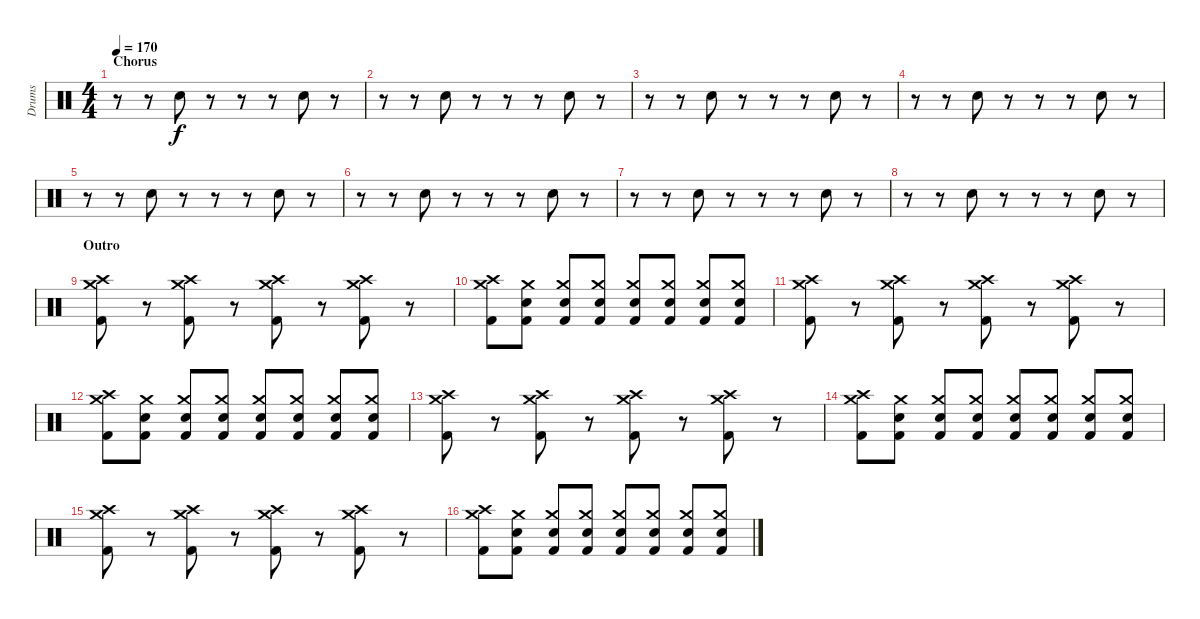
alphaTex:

\track ("Drums" "Drums") {instrument percussion}
\staff {score}
\articulation defaults
\ts (4 4)
\section ("" "Chorus")
\tempo 170
\clef neutral
\ks c
r.8{dy f} r.8 "Electric Snare (hit)".8 r.8 r.8 r.8 "Electric Snare (hit)".8 r.8 |
r.8 r.8 "Electric Snare (hit)".8 r.8 r.8 r.8 "Electric Snare (hit)".8 r.8 |
r.8 r.8 "Electric Snare (hit)".8 r.8 r.8 r.8 "Electric Snare (hit)".8 r.8 |
r.8 r.8 "Electric Snare (hit)".8 r.8 r.8 r.8 "Electric Snare (hit)".8 r.8 |
r.8 r.8 "Electric Snare (hit)".8 r.8 r.8 r.8 "Electric Snare (hit)".8 r.8 |
r.8 r.8 "Electric Snare (hit)".8 r.8 r.8 r.8 "Electric Snare (hit)".8 r.8 |
r.8 r.8 "Electric Snare (hit)".8 r.8 r.8 r.8 "Electric Snare (hit)".8 r.8 |
r.8 r.8 "Electric Snare (hit)".8 r.8 r.8 r.8 "Electric Snare (hit)".8 r.8 |
\section ("" "Outro")
("Crash high (hit)" "Crash medium (hit)" "Kick (hit) 2").8 r.8 ("Crash high (hit)" "Crash medium (hit)" "Kick (hit) 2").8 r.8 ("Crash high (hit)" "Crash medium (hit)" "Kick (hit) 2").8 r.8 ("Crash high (hit)" "Crash medium (hit)" "Kick (hit) 2").8 r.8 |
("Crash high (hit)" "Crash medium (hit)" "Kick (hit) 2").8 ("Crash medium (hit)" "Electric Snare (hit)" "Kick (hit) 2").8 ("Crash medium (hit)" "Electric Snare (hit)" "Kick (hit) 2").8 ("Crash medium (hit)" "Electric Snare (hit)" "Kick (hit) 2").8 ("Crash medium (hit)" "Electric Snare (hit)" "Kick (hit) 2").8 ("Crash medium (hit)" "Electric Snare (hit)" "Kick (hit) 2").8 ("Crash medium (hit)" "Electric Snare (hit)" "Kick (hit) 2").8 ("Crash medium (hit)" "Electric Snare (hit)" "Kick (hit) 2").8 |
("Crash high (hit)" "Crash medium (hit)" "Kick (hit) 2").8 r.8 ("Crash high (hit)" "Crash medium (hit)" "Kick (hit) 2").8 r.8 ("Crash high (hit)" "Crash medium (hit)" "Kick (hit) 2").8 r.8 ("Crash high (hit)" "Crash medium (hit)" "Kick (hit) 2").8 r.8 |
("Crash high (hit)" "Crash medium (hit)" "Kick (hit) 2").8 ("Crash medium (hit)" "Electric Snare (hit)" "Kick (hit) 2").8 ("Crash medium (hit)" "Electric Snare (hit)" "Kick (hit) 2").8 ("Crash medium (hit)" "Electric Snare (hit)" "Kick (hit) 2").8 ("Crash medium (hit)" "Electric Snare (hit)" "Kick (hit) 2").8 ("Crash medium (hit)" "Electric Snare (hit)" "Kick (hit) 2").8 ("Crash medium (hit)" "Electric Snare (hit)" "Kick (hit) 2").8 ("Crash medium (hit)" "Electric Snare (hit)" "Kick (hit) 2").8 |
("Crash high (hit)" "Crash medium (hit)" "Kick (hit) 2").8 r.8 ("Crash high (hit)" "Crash medium (hit)" "Kick (hit) 2").8 r.8 ("Crash high (hit)" "Crash medium (hit)" "Kick (hit) 2").8 r.8 ("Crash high (hit)" "Crash medium (hit)" "Kick (hit) 2").8 r.8 |
("Crash high (hit)" "Crash medium (hit)" "Kick (hit) 2").8 ("Crash medium (hit)" "Electric Snare (hit)" "Kick (hit) 2").8 ("Crash medium (hit)" "Electric Snare (hit)" "Kick (hit) 2").8 ("Crash medium (hit)" "Electric Snare (hit)" "Kick (hit) 2").8 ("Crash medium (hit)" "Electric Snare (hit)" "Kick (hit) 2").8 ("Crash medium (hit)" "Electric Snare (hit)" "Kick (hit) 2").8 ("Crash medium (hit)" "Electric Snare (hit)" "Kick (hit) 2").8 ("Crash medium (hit)" "Electric Snare (hit)" "Kick (hit) 2").8 |
("Crash high (hit)" "Crash medium (hit)" "Kick (hit) 2").8 r.8 ("Crash high (hit)" "Crash medium (hit)" "Kick (hit) 2").8 r.8 ("Crash high (hit)" "Crash medium (hit)" "Kick (hit) 2").8 r.8 ("Crash high (hit)" "Crash medium (hit)" "Kick (hit) 2").8 r.8 |
("Crash high (hit)" "Crash medium (hit)" "Kick (hit) 2").8 ("Crash medium (hit)" "Electric Snare (hit)" "Kick (hit) 2").8 ("Crash medium (hit)" "Electric Snare (hit)" "Kick (hit) 2").8 ("Crash medium (hit)" "Electric Snare (hit)" "Kick (hit) 2").8 ("Crash medium (hit)" "Electric Snare (hit)" "Kick (hit) 2").8 ("Crash medium (hit)" "Electric Snare (hit)" "Kick (hit) 2").8 ("Crash medium (hit)" "Electric Snare (hit)" "Kick (hit) 2").8 ("Crash medium (hit)" "Electric Snare (hit)" "Kick (hit) 2").8
